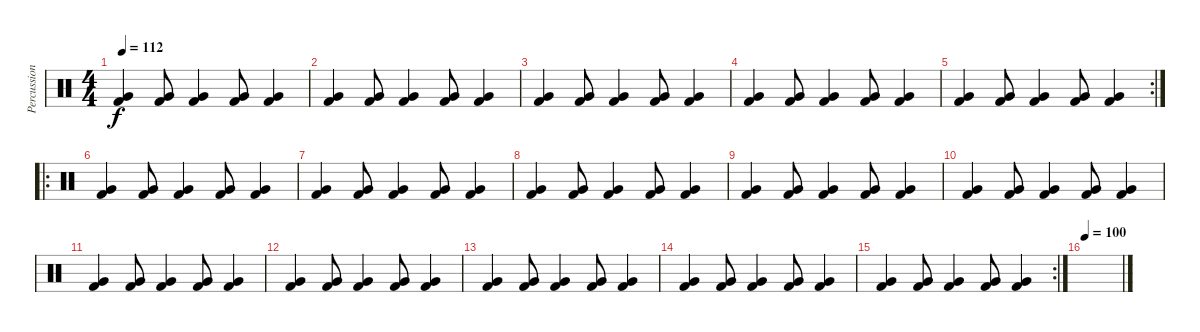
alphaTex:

\track ("Percussion" "Percussion") {instrument percussion}
\staff {score}
\articulation defaults
\ts (4 4)
\tempo 112
\clef neutral
\ks c
("Very Low Tom (hit)" "Kick (hit) 2").4{dy f} ("Very Low Tom (hit)" "Kick (hit) 2").8 ("Very Low Tom (hit)" "Kick (hit) 2").4 ("Very Low Tom (hit)" "Kick (hit) 2").8 ("Very Low Tom (hit)" "Kick (hit) 2").4 |
("Very Low Tom (hit)" "Kick (hit) 2").4 ("Very Low Tom (hit)" "Kick (hit) 2").8 ("Very Low Tom (hit)" "Kick (hit) 2").4 ("Very Low Tom (hit)" "Kick (hit) 2").8 ("Very Low Tom (hit)" "Kick (hit) 2").4 |
("Very Low Tom (hit)" "Kick (hit) 2").4 ("Very Low Tom (hit)" "Kick (hit) 2").8 ("Very Low Tom (hit)" "Kick (hit) 2").4 ("Very Low Tom (hit)" "Kick (hit) 2").8 ("Very Low Tom (hit)" "Kick (hit) 2").4 |
("Very Low Tom (hit)" "Kick (hit) 2").4 ("Very Low Tom (hit)" "Kick (hit) 2").8 ("Very Low Tom (hit)" "Kick (hit) 2").4 ("Very Low Tom (hit)" "Kick (hit) 2").8 ("Very Low Tom (hit)" "Kick (hit) 2").4 |
\rc 2
("Very Low Tom (hit)" "Kick (hit) 2").4 ("Very Low Tom (hit)" "Kick (hit) 2").8 ("Very Low Tom (hit)" "Kick (hit) 2").4 ("Very Low Tom (hit)" "Kick (hit) 2").8 ("Very Low Tom (hit)" "Kick (hit) 2").4 |
\ro
("Very Low Tom (hit)" "Kick (hit) 2").4 ("Very Low Tom (hit)" "Kick (hit) 2").8 ("Very Low Tom (hit)" "Kick (hit) 2").4 ("Very Low Tom (hit)" "Kick (hit) 2").8 ("Very Low Tom (hit)" "Kick (hit) 2").4 |
("Very Low Tom (hit)" "Kick (hit) 2").4 ("Very Low Tom (hit)" "Kick (hit) 2").8 ("Very Low Tom (hit)" "Kick (hit) 2").4 ("Very Low Tom (hit)" "Kick (hit) 2").8 ("Very Low Tom (hit)" "Kick (hit) 2").4 |
("Very Low Tom (hit)" "Kick (hit) 2").4 ("Very Low Tom (hit)" "Kick (hit) 2").8 ("Very Low Tom (hit)" "Kick (hit) 2").4 ("Very Low Tom (hit)" "Kick (hit) 2").8 ("Very Low Tom (hit)" "Kick (hit) 2").4 |
("Very Low Tom (hit)" "Kick (hit) 2").4 ("Very Low Tom (hit)" "Kick (hit) 2").8 ("Very Low Tom (hit)" "Kick (hit) 2").4 ("Very Low Tom (hit)" "Kick (hit) 2").8 ("Very Low Tom (hit)" "Kick (hit) 2").4 |
("Very Low Tom (hit)" "Kick (hit) 2").4 ("Very Low Tom (hit)" "Kick (hit) 2").8 ("Very Low Tom (hit)" "Kick (hit) 2").4 ("Very Low Tom (hit)" "Kick (hit) 2").8 ("Very Low Tom (hit)" "Kick (hit) 2").4 |
("Very Low Tom (hit)" "Kick (hit) 2").4 ("Very Low Tom (hit)" "Kick (hit) 2").8 ("Very Low Tom (hit)" "Kick (hit) 2").4 ("Very Low Tom (hit)" "Kick (hit) 2").8 ("Very Low Tom (hit)" "Kick (hit) 2").4 |
("Very Low Tom (hit)" "Kick (hit) 2").4 ("Very Low Tom (hit)" "Kick (hit) 2").8 ("Very Low Tom (hit)" "Kick (hit) 2").4 ("Very Low Tom (hit)" "Kick (hit) 2").8 ("Very Low Tom (hit)" "Kick (hit) 2").4 |
("Very Low Tom (hit)" "Kick (hit) 2").4 ("Very Low Tom (hit)" "Kick (hit) 2").8 ("Very Low Tom (hit)" "Kick (hit) 2").4 ("Very Low Tom (hit)" "Kick (hit) 2").8 ("Very Low Tom (hit)" "Kick (hit) 2").4 |
("Very Low Tom (hit)" "Kick (hit) 2").4 ("Very Low Tom (hit)" "Kick (hit) 2").8 ("Very Low Tom (hit)" "Kick (hit) 2").4 ("Very Low Tom (hit)" "Kick (hit) 2").8 ("Very Low Tom (hit)" "Kick (hit) 2").4 |
\rc 2
("Very Low Tom (hit)" "Kick (hit) 2").4 ("Very Low Tom (hit)" "Kick (hit) 2").8 ("Very Low Tom (hit)" "Kick (hit) 2").4 ("Very Low Tom (hit)" "Kick (hit) 2").8 ("Very Low Tom (hit)" "Kick (hit) 2").4 |
\tempo 100
